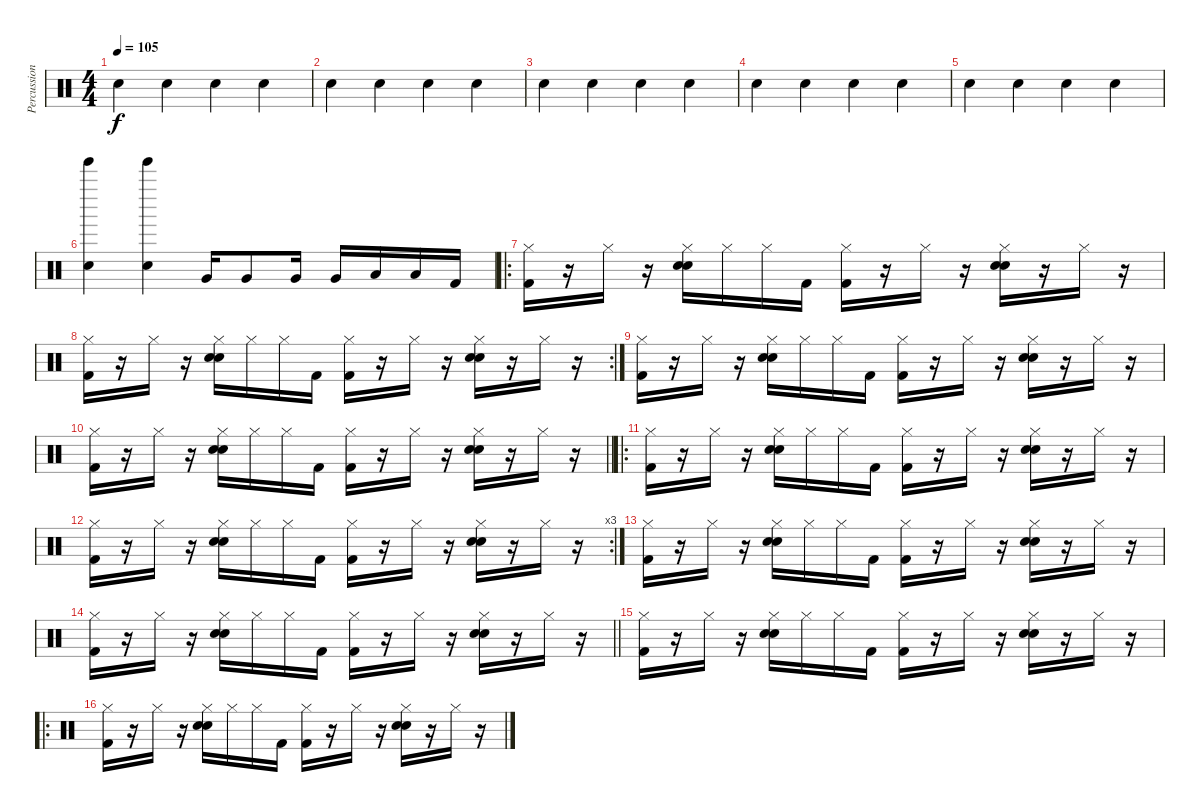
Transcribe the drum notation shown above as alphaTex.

\track ("Percussion" "Percussion") {instrument percussion}
\staff {score}
\articulation defaults
\ts (4 4)
\tempo 105
\clef neutral
\ks c "Snare (hit) 2".4{dy f} "Snare (hit) 2".4 "Snare (hit) 2".4 "Snare (hit) 2".4
|
"Snare (hit) 2".4 "Snare (hit) 2".4 "Snare (hit) 2".4 "Snare (hit) 2".4 |
"Snare (hit) 2".4 "Snare (hit) 2".4 "Snare (hit) 2".4 "Snare (hit) 2".4 |
"Snare (hit) 2".4 "Snare (hit) 2".4 "Snare (hit) 2".4 "Snare (hit) 2".4 |
"Snare (hit) 2".4 "Snare (hit) 2".4 "Snare (hit) 2".4 "Snare (hit) 2".4 |
("Snare (hit) 2" "Tinkle Bell (hit)").4 ("Snare (hit) 2" "Tinkle Bell (hit)").4 "Very Low Tom (hit)".16 "Very Low Tom (hit)".8 "Very Low Tom (hit)".16 "Very Low Tom (hit)".16 "Low Tom (hit)".16 "Low Tom (hit)".16 "Kick (hit) 2".16 |
\ro
("Hi-Hat (closed)" "Kick (hit) 2").16 r.16 "Hi-Hat (closed)".16 r.16 ("Hi-Hat (closed)" "Snare (hit) 2" "Hand Clap (hit)").16 "Hi-Hat (closed)".16 "Hi-Hat (closed)".16 "Kick (hit) 2".16 ("Hi-Hat (closed)" "Kick (hit) 2").16 r.16 "Hi-Hat (closed)".16 r.16 ("Hi-Hat (closed)" "Snare (hit) 2" "Hand Clap (hit)").16 r.16 "Hi-Hat (closed)".16 r.16 |
\rc 2
("Hi-Hat (closed)" "Kick (hit) 2").16 r.16 "Hi-Hat (closed)".16 r.16 ("Hi-Hat (closed)" "Snare (hit) 2" "Hand Clap (hit)").16 "Hi-Hat (closed)".16 "Hi-Hat (closed)".16 "Kick (hit) 2".16 ("Hi-Hat (closed)" "Kick (hit) 2").16 r.16 "Hi-Hat (closed)".16 r.16 ("Hi-Hat (closed)" "Snare (hit) 2" "Hand Clap (hit)").16 r.16 "Hi-Hat (closed)".16 r.16 |
("Hi-Hat (closed)" "Kick (hit) 2").16 r.16 "Hi-Hat (closed)".16 r.16 ("Hi-Hat (closed)" "Snare (hit) 2" "Hand Clap (hit)").16 "Hi-Hat (closed)".16 "Hi-Hat (closed)".16 "Kick (hit) 2".16 ("Hi-Hat (closed)" "Kick (hit) 2").16 r.16 "Hi-Hat (closed)".16 r.16 ("Hi-Hat (closed)" "Snare (hit) 2" "Hand Clap (hit)").16 r.16 "Hi-Hat (closed)".16 r.16 |
\barLineRight lightlight
("Hi-Hat (closed)" "Kick (hit) 2").16 r.16 "Hi-Hat (closed)".16 r.16 ("Hi-Hat (closed)" "Snare (hit) 2" "Hand Clap (hit)").16 "Hi-Hat (closed)".16 "Hi-Hat (closed)".16 "Kick (hit) 2".16 ("Hi-Hat (closed)" "Kick (hit) 2").16 r.16 "Hi-Hat (closed)".16 r.16 ("Hi-Hat (closed)" "Snare (hit) 2" "Hand Clap (hit)").16 r.16 "Hi-Hat (closed)".16 r.16 |
\ro
("Hi-Hat (closed)" "Kick (hit) 2").16 r.16 "Hi-Hat (closed)".16 r.16 ("Hi-Hat (closed)" "Snare (hit) 2" "Hand Clap (hit)").16 "Hi-Hat (closed)".16 "Hi-Hat (closed)".16 "Kick (hit) 2".16 ("Hi-Hat (closed)" "Kick (hit) 2").16 r.16 "Hi-Hat (closed)".16 r.16 ("Hi-Hat (closed)" "Snare (hit) 2" "Hand Clap (hit)").16 r.16 "Hi-Hat (closed)".16 r.16 |
\rc 3
("Hi-Hat (closed)" "Kick (hit) 2").16 r.16 "Hi-Hat (closed)".16 r.16 ("Hi-Hat (closed)" "Snare (hit) 2" "Hand Clap (hit)").16 "Hi-Hat (closed)".16 "Hi-Hat (closed)".16 "Kick (hit) 2".16 ("Hi-Hat (closed)" "Kick (hit) 2").16 r.16 "Hi-Hat (closed)".16 r.16 ("Hi-Hat (closed)" "Snare (hit) 2" "Hand Clap (hit)").16 r.16 "Hi-Hat (closed)".16 r.16 |
("Hi-Hat (closed)" "Kick (hit) 2").16 r.16 "Hi-Hat (closed)".16 r.16 ("Hi-Hat (closed)" "Snare (hit) 2" "Hand Clap (hit)").16 "Hi-Hat (closed)".16 "Hi-Hat (closed)".16 "Kick (hit) 2".16 ("Hi-Hat (closed)" "Kick (hit) 2").16 r.16 "Hi-Hat (closed)".16 r.16 ("Hi-Hat (closed)" "Snare (hit) 2" "Hand Clap (hit)").16 r.16 "Hi-Hat (closed)".16 r.16 |
\barLineRight lightlight
("Hi-Hat (closed)" "Kick (hit) 2").16 r.16 "Hi-Hat (closed)".16 r.16 ("Hi-Hat (closed)" "Snare (hit) 2" "Hand Clap (hit)").16 "Hi-Hat (closed)".16 "Hi-Hat (closed)".16 "Kick (hit) 2".16 ("Hi-Hat (closed)" "Kick (hit) 2").16 r.16 "Hi-Hat (closed)".16 r.16 ("Hi-Hat (closed)" "Snare (hit) 2" "Hand Clap (hit)").16 r.16 "Hi-Hat (closed)".16 r.16 |
("Hi-Hat (closed)" "Kick (hit) 2").16 r.16 "Hi-Hat (closed)".16 r.16 ("Hi-Hat (closed)" "Snare (hit) 2" "Hand Clap (hit)").16 "Hi-Hat (closed)".16 "Hi-Hat (closed)".16 "Kick (hit) 2".16 ("Hi-Hat (closed)" "Kick (hit) 2").16 r.16 "Hi-Hat (closed)".16 r.16 ("Hi-Hat (closed)" "Snare (hit) 2" "Hand Clap (hit)").16 r.16 "Hi-Hat (closed)".16 r.16 |
\ro
("Hi-Hat (closed)" "Kick (hit) 2").16 r.16 "Hi-Hat (closed)".16 r.16 ("Hi-Hat (closed)" "Snare (hit) 2" "Hand Clap (hit)").16 "Hi-Hat (closed)".16 "Hi-Hat (closed)".16 "Kick (hit) 2".16 ("Hi-Hat (closed)" "Kick (hit) 2").16 r.16 "Hi-Hat (closed)".16 r.16 ("Hi-Hat (closed)" "Snare (hit) 2" "Hand Clap (hit)").16 r.16 "Hi-Hat (closed)".16 r.16
